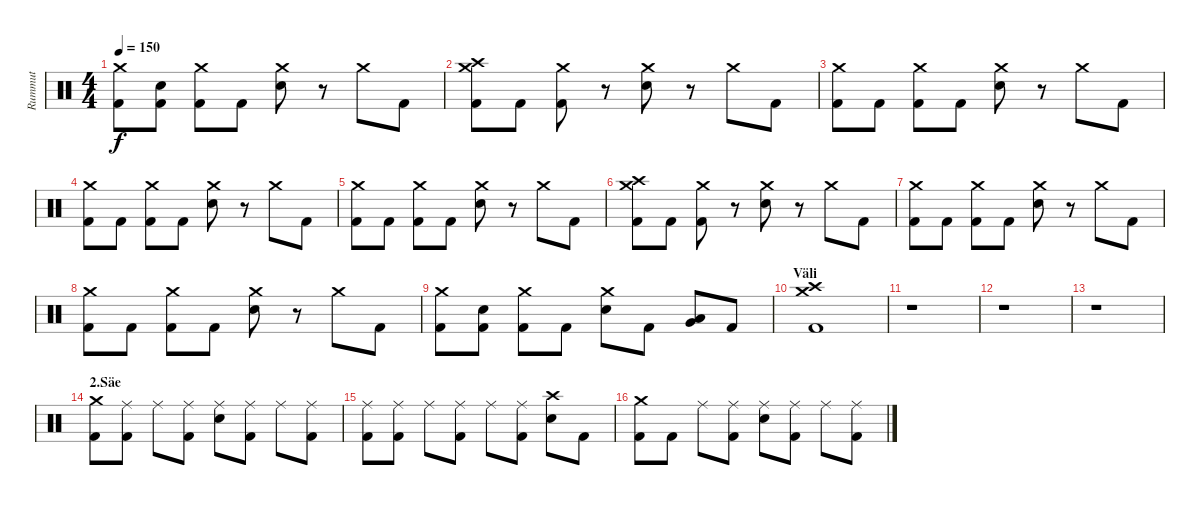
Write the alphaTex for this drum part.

\track ("Rummut" "Rummut") {instrument percussion}
\staff {score}
\articulation defaults
\ts (4 4)
\tempo 150
\clef neutral
\ks c
("Crash medium (hit)" "Kick (hit) 2").8{dy f} ("Snare (hit) 2" "Kick (hit) 2").8 ("Crash medium (hit)" "Kick (hit) 2").8 "Kick (hit) 2".8 ("Crash medium (hit)" "Snare (hit) 2").8 r.8 "Crash medium (hit)".8 "Kick (hit) 2".8 |
("Crash high (hit)" "Crash medium (hit)" "Kick (hit) 2").8 "Kick (hit) 2".8 ("Crash medium (hit)" "Kick (hit) 2").8 r.8 ("Crash medium (hit)" "Snare (hit) 2").8 r.8 "Crash medium (hit)".8 "Kick (hit) 2".8 |
("Crash medium (hit)" "Kick (hit) 2").8 "Kick (hit) 2".8 ("Crash medium (hit)" "Kick (hit) 2").8 "Kick (hit) 2".8 ("Crash medium (hit)" "Snare (hit) 2").8 r.8 "Crash medium (hit)".8 "Kick (hit) 2".8 |
("Crash medium (hit)" "Kick (hit) 2").8 "Kick (hit) 2".8 ("Crash medium (hit)" "Kick (hit) 2").8 "Kick (hit) 2".8 ("Crash medium (hit)" "Snare (hit) 2").8 r.8 "Crash medium (hit)".8 "Kick (hit) 2".8 |
("Crash medium (hit)" "Kick (hit) 2").8 "Kick (hit) 2".8 ("Crash medium (hit)" "Kick (hit) 2").8 "Kick (hit) 2".8 ("Crash medium (hit)" "Snare (hit) 2").8 r.8 "Crash medium (hit)".8 "Kick (hit) 2".8 |
("Crash high (hit)" "Crash medium (hit)" "Kick (hit) 2").8 "Kick (hit) 2".8 ("Crash medium (hit)" "Kick (hit) 2").8 r.8 ("Crash medium (hit)" "Snare (hit) 2").8 r.8 "Crash medium (hit)".8 "Kick (hit) 2".8 |
("Crash medium (hit)" "Kick (hit) 2").8 "Kick (hit) 2".8 ("Crash medium (hit)" "Kick (hit) 2").8 "Kick (hit) 2".8 ("Crash medium (hit)" "Snare (hit) 2").8 r.8 "Crash medium (hit)".8 "Kick (hit) 2".8 |
("Crash medium (hit)" "Kick (hit) 2").8 "Kick (hit) 2".8 ("Crash medium (hit)" "Kick (hit) 2").8 "Kick (hit) 2".8 ("Crash medium (hit)" "Snare (hit) 2").8 r.8 "Crash medium (hit)".8 "Kick (hit) 2".8 |
("Crash medium (hit)" "Kick (hit) 2").8 ("Snare (hit) 2" "Kick (hit) 2").8 ("Crash medium (hit)" "Kick (hit) 2").8 "Kick (hit) 2".8 ("Crash medium (hit)" "Snare (hit) 2").8 "Kick (hit) 2".8 ("Low Tom (hit)" "Very Low Tom (hit)").8 "Kick (hit) 2".8 |
\section ("" "Väli")
("Crash high (hit)" "Crash medium (hit)" "Kick (hit) 2").1 |
r.1 |
r.1 |
r.1 |
\section ("" "2.Säe")
("Crash medium (hit)" "Kick (hit) 2").8 ("Ride (middle)" "Kick (hit) 2").8 "Ride (middle)".8 ("Ride (middle)" "Kick (hit) 2").8 ("Ride (middle)" "Snare (hit) 2").8 ("Ride (middle)" "Kick (hit) 2").8 "Ride (middle)".8 ("Ride (middle)" "Kick (hit) 2").8 |
("Ride (middle)" "Kick (hit) 2").8 ("Ride (middle)" "Kick (hit) 2").8 "Ride (middle)".8 ("Ride (middle)" "Kick (hit) 2").8 "Ride (middle)".8 ("Ride (middle)" "Kick (hit) 2").8 ("Crash high (hit)" "Snare (hit) 2").8 "Kick (hit) 2".8 |
("Crash medium (hit)" "Kick (hit) 2").8 "Kick (hit) 2".8 "Ride (middle)".8 ("Ride (middle)" "Kick (hit) 2").8 ("Ride (middle)" "Snare (hit) 2").8 ("Ride (middle)" "Kick (hit) 2").8 "Ride (middle)".8 ("Ride (middle)" "Kick (hit) 2").8
